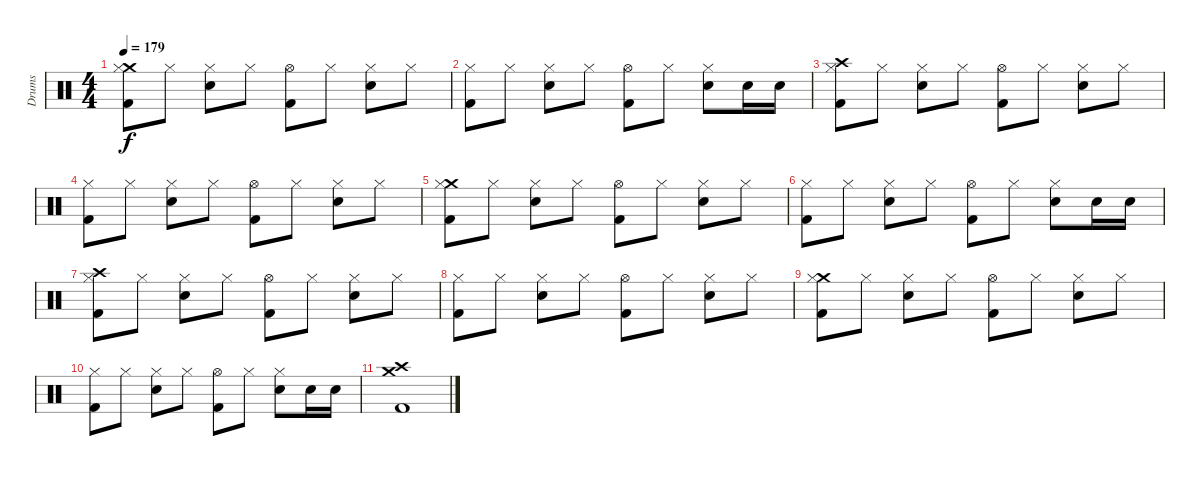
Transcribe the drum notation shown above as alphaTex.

\track ("Drums" "Drums") {instrument percussion}
\staff {score}
\articulation defaults
\ts (4 4)
\tempo 179
\clef neutral
\ks c
("Kick (hit) 2" "Crash medium (hit)" "Hi-Hat (closed)").8{dy f} "Hi-Hat (closed)".8 ("Electric Snare (hit)" "Hi-Hat (closed)").8 "Hi-Hat (closed)".8 ("Kick (hit) 2" "Hi-Hat (open)").8 "Hi-Hat (closed)".8 ("Electric Snare (hit)" "Hi-Hat (closed)").8 "Hi-Hat (closed)".8 |
("Kick (hit) 2" "Hi-Hat (closed)").8 "Hi-Hat (closed)".8 ("Electric Snare (hit)" "Hi-Hat (closed)").8 "Hi-Hat (closed)".8 ("Kick (hit) 2" "Hi-Hat (open)").8 "Hi-Hat (closed)".8 ("Electric Snare (hit)" "Hi-Hat (closed)").8 "Electric Snare (hit)".16 "Electric Snare (hit)".16 |
("Kick (hit) 2" "Crash high (hit)" "Hi-Hat (closed)").8 "Hi-Hat (closed)".8 ("Electric Snare (hit)" "Hi-Hat (closed)").8 "Hi-Hat (closed)".8 ("Kick (hit) 2" "Hi-Hat (open)").8 "Hi-Hat (closed)".8 ("Electric Snare (hit)" "Hi-Hat (closed)").8 "Hi-Hat (closed)".8 |
("Kick (hit) 2" "Hi-Hat (closed)").8 "Hi-Hat (closed)".8 ("Electric Snare (hit)" "Hi-Hat (closed)").8 "Hi-Hat (closed)".8 ("Kick (hit) 2" "Hi-Hat (open)").8 "Hi-Hat (closed)".8 ("Electric Snare (hit)" "Hi-Hat (closed)").8 "Hi-Hat (closed)".8 |
("Kick (hit) 2" "Crash medium (hit)" "Hi-Hat (closed)").8 "Hi-Hat (closed)".8 ("Electric Snare (hit)" "Hi-Hat (closed)").8 "Hi-Hat (closed)".8 ("Kick (hit) 2" "Hi-Hat (open)").8 "Hi-Hat (closed)".8 ("Electric Snare (hit)" "Hi-Hat (closed)").8 "Hi-Hat (closed)".8 |
("Kick (hit) 2" "Hi-Hat (closed)").8 "Hi-Hat (closed)".8 ("Electric Snare (hit)" "Hi-Hat (closed)").8 "Hi-Hat (closed)".8 ("Kick (hit) 2" "Hi-Hat (open)").8 "Hi-Hat (closed)".8 ("Electric Snare (hit)" "Hi-Hat (closed)").8 "Electric Snare (hit)".16 "Electric Snare (hit)".16 |
("Kick (hit) 2" "Crash high (hit)" "Hi-Hat (closed)").8 "Hi-Hat (closed)".8 ("Electric Snare (hit)" "Hi-Hat (closed)").8 "Hi-Hat (closed)".8 ("Kick (hit) 2" "Hi-Hat (open)").8 "Hi-Hat (closed)".8 ("Electric Snare (hit)" "Hi-Hat (closed)").8 "Hi-Hat (closed)".8 |
("Kick (hit) 2" "Hi-Hat (closed)").8 "Hi-Hat (closed)".8 ("Electric Snare (hit)" "Hi-Hat (closed)").8 "Hi-Hat (closed)".8 ("Kick (hit) 2" "Hi-Hat (open)").8 "Hi-Hat (closed)".8 ("Electric Snare (hit)" "Hi-Hat (closed)").8 "Hi-Hat (closed)".8 |
("Kick (hit) 2" "Crash medium (hit)" "Hi-Hat (closed)").8 "Hi-Hat (closed)".8 ("Electric Snare (hit)" "Hi-Hat (closed)").8 "Hi-Hat (closed)".8 ("Kick (hit) 2" "Hi-Hat (open)").8 "Hi-Hat (closed)".8 ("Electric Snare (hit)" "Hi-Hat (closed)").8 "Hi-Hat (closed)".8 |
("Kick (hit) 2" "Hi-Hat (closed)").8 "Hi-Hat (closed)".8 ("Electric Snare (hit)" "Hi-Hat (closed)").8 "Hi-Hat (closed)".8 ("Kick (hit) 2" "Hi-Hat (open)").8 "Hi-Hat (closed)".8 ("Electric Snare (hit)" "Hi-Hat (closed)").8 "Electric Snare (hit)".16 "Electric Snare (hit)".16 |
("Crash medium (hit)" "Crash high (hit)" "Kick (hit) 2").1
